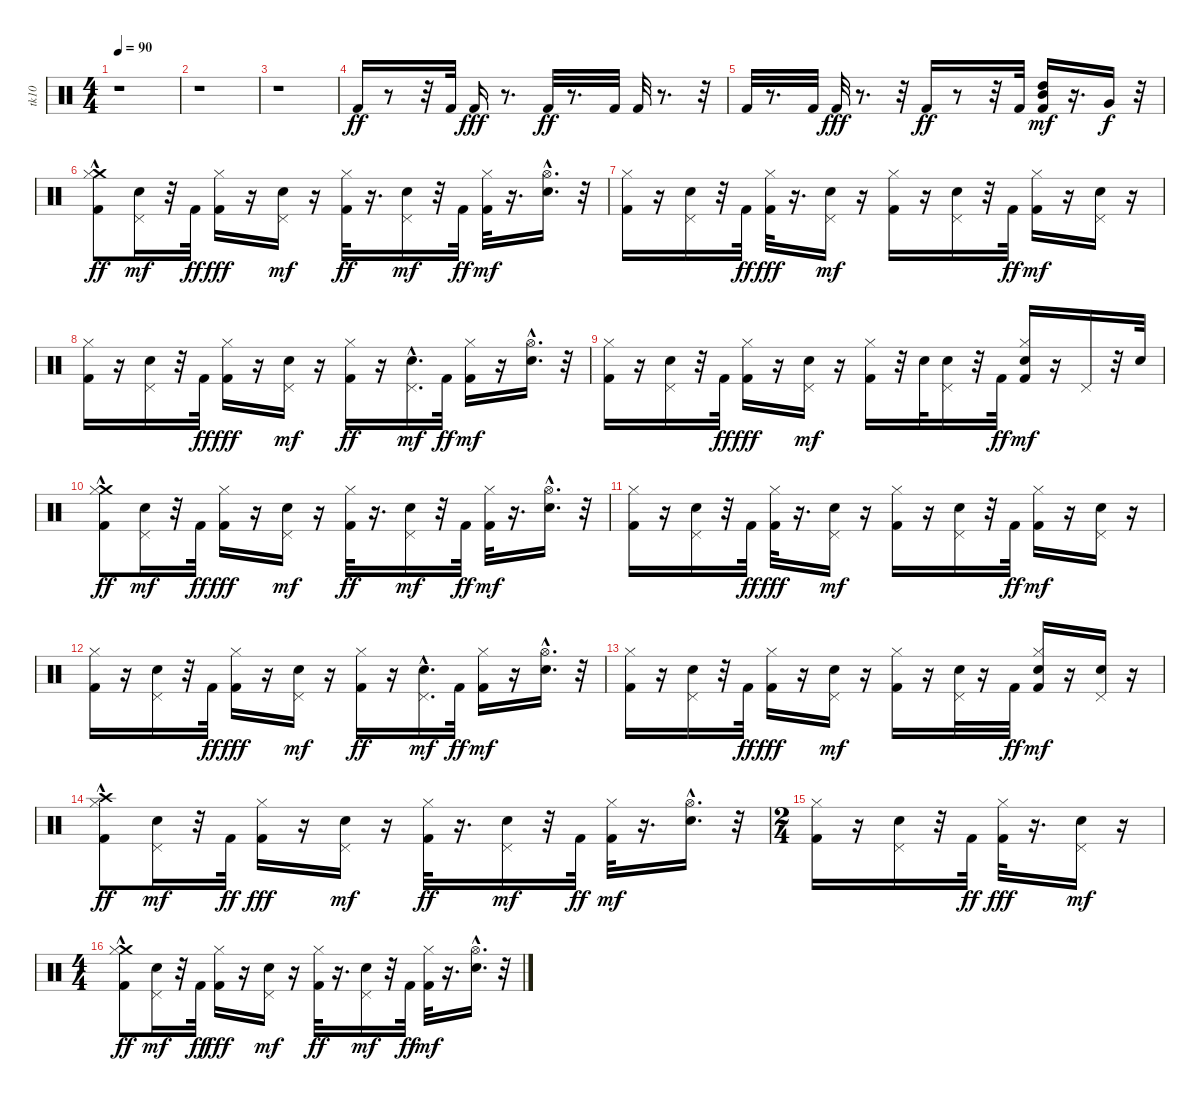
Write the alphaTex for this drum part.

\track ("tk10" "tk10") {instrument percussion}
\staff {score}
\articulation defaults
\ts (4 4)
\tempo 90
\clef neutral
\ks c
r.1{dy ff} |
r.1 |
r.1 |
"Kick (hit) 2".16{balance 8} r.8 r.32 "Kick (hit) 2".32 "Kick (hit) 2".16{dy fff} r.8{d} "Kick (hit) 2".32{dy ff} r.8{d} "Kick (hit) 2".32 "Kick (hit) 2".32 r.8{d} r.32 |
"Kick (hit) 2".32 r.8{d} "Kick (hit) 2".32 "Kick (hit) 2".32{dy fff} r.8{d} r.32 "Kick (hit) 2".16{dy ff} r.8 r.32 "Kick (hit) 2".32 ("Kick (hit) 2" "High Tom (hit)" "Mid Tom (hit)").16{dy mf} r.16{d} "Very Low Tom (hit)".16{dy f} r.32 |
("Crash medium (hit)"{hac} "Hi-Hat (closed)" "Kick (hit) 2").8{dy ff} ("Electric Snare (hit)" "Pedal Hi-Hat (hit)").16{dy mf} r.32 "Kick (hit) 2".32{dy ff} ("Kick (hit) 2" "Hi-Hat (closed)").16{dy fff} r.16 ("Electric Snare (hit)" "Pedal Hi-Hat (hit)").16{dy mf} r.16 ("Kick (hit) 2" "Hi-Hat (closed)").32{dy ff} r.16{d} ("Electric Snare (hit)" "Pedal Hi-Hat (hit)").16{dy mf} r.32 "Kick (hit) 2".32{dy ff} ("Kick (hit) 2" "Hi-Hat (closed)").32{dy mf} r.16{d} ("Electric Snare (hit)" "Hi-Hat (open)"{hac}).16{d} r.32 |
("Kick (hit) 2" "Hi-Hat (closed)").16 r.16 ("Electric Snare (hit)" "Pedal Hi-Hat (hit)").16 r.32 "Kick (hit) 2".32{dy ff} ("Hi-Hat (closed)" "Kick (hit) 2").32{dy fff} r.16{d} ("Electric Snare (hit)" "Pedal Hi-Hat (hit)").16{dy mf} r.16 ("Kick (hit) 2" "Hi-Hat (closed)").16 r.16 ("Electric Snare (hit)" "Pedal Hi-Hat (hit)").16 r.32 "Kick (hit) 2".32{dy ff} ("Kick (hit) 2" "Hi-Hat (closed)").16{dy mf} r.16 ("Electric Snare (hit)" "Pedal Hi-Hat (hit)").16 r.16 |
("Kick (hit) 2" "Hi-Hat (closed)").16 r.16 ("Electric Snare (hit)" "Pedal Hi-Hat (hit)").16 r.32 "Kick (hit) 2".32{dy ff} ("Hi-Hat (closed)" "Kick (hit) 2").16{dy fff} r.16 ("Electric Snare (hit)" "Pedal Hi-Hat (hit)").16{dy mf} r.16 ("Hi-Hat (closed)" "Kick (hit) 2").16{dy ff} r.16 ("Electric Snare (hit)"{hac} "Pedal Hi-Hat (hit)").16{d dy mf} "Kick (hit) 2".32{dy ff} ("Kick (hit) 2" "Hi-Hat (closed)").16{dy mf} r.16 ("Electric Snare (hit)"{hac} "Hi-Hat (open)"{hac}).16{d} r.32 |
("Kick (hit) 2" "Hi-Hat (closed)").16 r.16 ("Pedal Hi-Hat (hit)" "Electric Snare (hit)").16 r.32 "Kick (hit) 2".32{dy ff} ("Hi-Hat (closed)" "Kick (hit) 2").16{dy fff} r.16 ("Electric Snare (hit)" "Pedal Hi-Hat (hit)").16{dy mf} r.16 ("Kick (hit) 2" "Hi-Hat (closed)").16 r.32 "Electric Snare (hit)".32 ("Electric Snare (hit)" "Pedal Hi-Hat (hit)").16 r.32 "Kick (hit) 2".32{dy ff} ("Kick (hit) 2" "Electric Snare (hit)" "Hi-Hat (closed)").16{dy mf} r.16 "Pedal Hi-Hat (hit)".16 r.32 "Electric Snare (hit)".32 |
("Crash medium (hit)"{hac} "Hi-Hat (closed)" "Kick (hit) 2").8{dy ff} ("Electric Snare (hit)" "Pedal Hi-Hat (hit)").16{dy mf} r.32 "Kick (hit) 2".32{dy ff} ("Kick (hit) 2" "Hi-Hat (closed)").16{dy fff} r.16 ("Electric Snare (hit)" "Pedal Hi-Hat (hit)").16{dy mf} r.16 ("Kick (hit) 2" "Hi-Hat (closed)").32{dy ff} r.16{d} ("Electric Snare (hit)" "Pedal Hi-Hat (hit)").16{dy mf} r.32 "Kick (hit) 2".32{dy ff} ("Kick (hit) 2" "Hi-Hat (closed)").32{dy mf} r.16{d} ("Electric Snare (hit)" "Hi-Hat (open)"{hac}).16{d} r.32 |
("Kick (hit) 2" "Hi-Hat (closed)").16 r.16 ("Electric Snare (hit)" "Pedal Hi-Hat (hit)").16 r.32 "Kick (hit) 2".32{dy ff} ("Hi-Hat (closed)" "Kick (hit) 2").32{dy fff} r.16{d} ("Electric Snare (hit)" "Pedal Hi-Hat (hit)").16{dy mf} r.16 ("Kick (hit) 2" "Hi-Hat (closed)").16 r.16 ("Electric Snare (hit)" "Pedal Hi-Hat (hit)").16 r.32 "Kick (hit) 2".32{dy ff} ("Kick (hit) 2" "Hi-Hat (closed)").16{dy mf} r.16 ("Electric Snare (hit)" "Pedal Hi-Hat (hit)").16 r.16 |
("Kick (hit) 2" "Hi-Hat (closed)").16 r.16 ("Electric Snare (hit)" "Pedal Hi-Hat (hit)").16 r.32 "Kick (hit) 2".32{dy ff} ("Hi-Hat (closed)" "Kick (hit) 2").16{dy fff} r.16 ("Electric Snare (hit)" "Pedal Hi-Hat (hit)").16{dy mf} r.16 ("Hi-Hat (closed)" "Kick (hit) 2").16{dy ff} r.16 ("Electric Snare (hit)"{hac} "Pedal Hi-Hat (hit)").16{d dy mf} "Kick (hit) 2".32{dy ff} ("Kick (hit) 2" "Hi-Hat (closed)").16{dy mf} r.16 ("Electric Snare (hit)"{hac} "Hi-Hat (open)"{hac}).16{d} r.32 |
("Kick (hit) 2" "Hi-Hat (closed)").16 r.16 ("Pedal Hi-Hat (hit)" "Electric Snare (hit)").16 r.32 "Kick (hit) 2".32{dy ff} ("Hi-Hat (closed)" "Kick (hit) 2").16{dy fff} r.16 ("Electric Snare (hit)" "Pedal Hi-Hat (hit)").16{dy mf} r.16 ("Kick (hit) 2" "Hi-Hat (closed)").16 r.16 ("Pedal Hi-Hat (hit)" "Electric Snare (hit)").32 r.16 "Kick (hit) 2".32{dy ff} ("Kick (hit) 2" "Hi-Hat (closed)" "Electric Snare (hit)").16{dy mf} r.16 ("Pedal Hi-Hat (hit)" "Electric Snare (hit)").16 r.16 |
("Crash high (hit)"{hac} "Hi-Hat (closed)" "Kick (hit) 2").8{dy ff} ("Electric Snare (hit)" "Pedal Hi-Hat (hit)").16{dy mf} r.32 "Kick (hit) 2".32{dy ff} ("Kick (hit) 2" "Hi-Hat (closed)").16{dy fff} r.16 ("Electric Snare (hit)" "Pedal Hi-Hat (hit)").16{dy mf} r.16 ("Kick (hit) 2" "Hi-Hat (closed)").32{dy ff} r.16{d} ("Electric Snare (hit)" "Pedal Hi-Hat (hit)").16{dy mf} r.32 "Kick (hit) 2".32{dy ff} ("Kick (hit) 2" "Hi-Hat (closed)").32{dy mf} r.16{d} ("Electric Snare (hit)" "Hi-Hat (open)"{hac}).16{d} r.32 |
\ts (2 4)
("Kick (hit) 2" "Hi-Hat (closed)").16 r.16 ("Electric Snare (hit)" "Pedal Hi-Hat (hit)").16 r.32 "Kick (hit) 2".32{dy ff} ("Hi-Hat (closed)" "Kick (hit) 2").32{dy fff} r.16{d} ("Electric Snare (hit)" "Pedal Hi-Hat (hit)").16{dy mf} r.16 |
\ts (4 4)
("Crash medium (hit)"{hac} "Hi-Hat (closed)" "Kick (hit) 2").8{dy ff} ("Electric Snare (hit)" "Pedal Hi-Hat (hit)").16{dy mf} r.32 "Kick (hit) 2".32{dy ff} ("Kick (hit) 2" "Hi-Hat (closed)").16{dy fff} r.16 ("Electric Snare (hit)" "Pedal Hi-Hat (hit)").16{dy mf} r.16 ("Kick (hit) 2" "Hi-Hat (closed)").32{dy ff} r.16{d} ("Electric Snare (hit)" "Pedal Hi-Hat (hit)").16{dy mf} r.32 "Kick (hit) 2".32{dy ff} ("Kick (hit) 2" "Hi-Hat (closed)").32{dy mf} r.16{d} ("Electric Snare (hit)" "Hi-Hat (open)"{hac}).16{d} r.32
